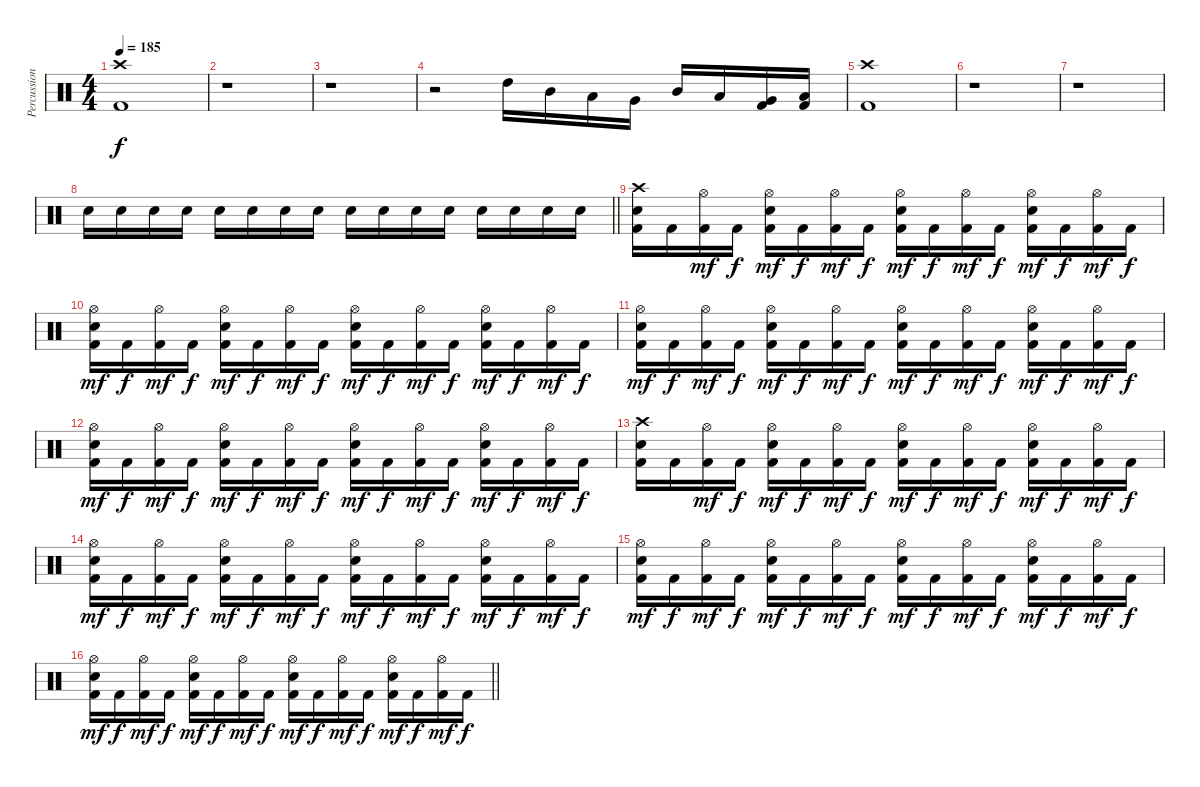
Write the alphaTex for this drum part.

\track ("Percussion" "Percussion") {instrument percussion}
\staff {score}
\articulation defaults
\ts (4 4)
\section ("" "")
\tempo 185
\clef neutral
\ks c
("Crash high (hit)" "Kick (hit) 2").1{dy f} |
r.1 |
r.1 |
r.2 "High Tom (hit)".16 "Mid Tom (hit)".16 "Low Tom (hit)".16 "Very Low Tom (hit)".16 "Mid Tom (hit)".16 "Low Tom (hit)".16 ("Very Low Tom (hit)" "Kick (hit) 2").16 ("Low Floor Tom (hit)" "Kick (hit) 2").16 |
("Crash high (hit)" "Kick (hit) 2").1 |
r.1 |
r.1 |
\barLineRight lightlight "Electric Snare (hit)".16 "Electric Snare (hit)".16 "Electric Snare (hit)".16 "Electric Snare (hit)".16 "Electric Snare (hit)".16 "Electric Snare (hit)".16 "Electric Snare (hit)".16 "Electric Snare (hit)".16 "Electric Snare (hit)".16 "Electric Snare (hit)".16 "Electric Snare (hit)".16 "Electric Snare (hit)".16 "Electric Snare (hit)".16 "Electric Snare (hit)".16 "Electric Snare (hit)".16 "Electric Snare (hit)".16
|
\section ("" "")
("Crash high (hit)" "Electric Snare (hit)" "Kick (hit) 2").16 "Kick (hit) 2".16 ("Hi-Hat (open)" "Kick (hit) 2").16{dy mf} "Kick (hit) 2".16{dy f} ("Hi-Hat (open)" "Electric Snare (hit)" "Kick (hit) 2").16{dy mf} "Kick (hit) 2".16{dy f} ("Hi-Hat (open)" "Kick (hit) 2").16{dy mf} "Kick (hit) 2".16{dy f} ("Hi-Hat (open)" "Electric Snare (hit)" "Kick (hit) 2").16{dy mf} "Kick (hit) 2".16{dy f} ("Hi-Hat (open)" "Kick (hit) 2").16{dy mf} "Kick (hit) 2".16{dy f} ("Hi-Hat (open)" "Electric Snare (hit)" "Kick (hit) 2").16{dy mf} "Kick (hit) 2".16{dy f} ("Hi-Hat (open)" "Kick (hit) 2").16{dy mf} "Kick (hit) 2".16{dy f} |
("Hi-Hat (open)" "Electric Snare (hit)" "Kick (hit) 2").16{dy mf} "Kick (hit) 2".16{dy f} ("Hi-Hat (open)" "Kick (hit) 2").16{dy mf} "Kick (hit) 2".16{dy f} ("Hi-Hat (open)" "Electric Snare (hit)" "Kick (hit) 2").16{dy mf} "Kick (hit) 2".16{dy f} ("Hi-Hat (open)" "Kick (hit) 2").16{dy mf} "Kick (hit) 2".16{dy f} ("Hi-Hat (open)" "Electric Snare (hit)" "Kick (hit) 2").16{dy mf} "Kick (hit) 2".16{dy f} ("Hi-Hat (open)" "Kick (hit) 2").16{dy mf} "Kick (hit) 2".16{dy f} ("Hi-Hat (open)" "Electric Snare (hit)" "Kick (hit) 2").16{dy mf} "Kick (hit) 2".16{dy f} ("Hi-Hat (open)" "Kick (hit) 2").16{dy mf} "Kick (hit) 2".16{dy f} |
("Hi-Hat (open)" "Electric Snare (hit)" "Kick (hit) 2").16{dy mf} "Kick (hit) 2".16{dy f} ("Hi-Hat (open)" "Kick (hit) 2").16{dy mf} "Kick (hit) 2".16{dy f} ("Hi-Hat (open)" "Electric Snare (hit)" "Kick (hit) 2").16{dy mf} "Kick (hit) 2".16{dy f} ("Hi-Hat (open)" "Kick (hit) 2").16{dy mf} "Kick (hit) 2".16{dy f} ("Hi-Hat (open)" "Electric Snare (hit)" "Kick (hit) 2").16{dy mf} "Kick (hit) 2".16{dy f} ("Hi-Hat (open)" "Kick (hit) 2").16{dy mf} "Kick (hit) 2".16{dy f} ("Hi-Hat (open)" "Electric Snare (hit)" "Kick (hit) 2").16{dy mf} "Kick (hit) 2".16{dy f} ("Hi-Hat (open)" "Kick (hit) 2").16{dy mf} "Kick (hit) 2".16{dy f} |
("Hi-Hat (open)" "Electric Snare (hit)" "Kick (hit) 2").16{dy mf} "Kick (hit) 2".16{dy f} ("Hi-Hat (open)" "Kick (hit) 2").16{dy mf} "Kick (hit) 2".16{dy f} ("Hi-Hat (open)" "Electric Snare (hit)" "Kick (hit) 2").16{dy mf} "Kick (hit) 2".16{dy f} ("Hi-Hat (open)" "Kick (hit) 2").16{dy mf} "Kick (hit) 2".16{dy f} ("Hi-Hat (open)" "Electric Snare (hit)" "Kick (hit) 2").16{dy mf} "Kick (hit) 2".16{dy f} ("Hi-Hat (open)" "Kick (hit) 2").16{dy mf} "Kick (hit) 2".16{dy f} ("Hi-Hat (open)" "Electric Snare (hit)" "Kick (hit) 2").16{dy mf} "Kick (hit) 2".16{dy f} ("Hi-Hat (open)" "Kick (hit) 2").16{dy mf} "Kick (hit) 2".16{dy f} |
("Crash high (hit)" "Electric Snare (hit)" "Kick (hit) 2").16 "Kick (hit) 2".16 ("Hi-Hat (open)" "Kick (hit) 2").16{dy mf} "Kick (hit) 2".16{dy f} ("Hi-Hat (open)" "Electric Snare (hit)" "Kick (hit) 2").16{dy mf} "Kick (hit) 2".16{dy f} ("Hi-Hat (open)" "Kick (hit) 2").16{dy mf} "Kick (hit) 2".16{dy f} ("Hi-Hat (open)" "Electric Snare (hit)" "Kick (hit) 2").16{dy mf} "Kick (hit) 2".16{dy f} ("Hi-Hat (open)" "Kick (hit) 2").16{dy mf} "Kick (hit) 2".16{dy f} ("Hi-Hat (open)" "Electric Snare (hit)" "Kick (hit) 2").16{dy mf} "Kick (hit) 2".16{dy f} ("Hi-Hat (open)" "Kick (hit) 2").16{dy mf} "Kick (hit) 2".16{dy f} |
("Hi-Hat (open)" "Electric Snare (hit)" "Kick (hit) 2").16{dy mf} "Kick (hit) 2".16{dy f} ("Hi-Hat (open)" "Kick (hit) 2").16{dy mf} "Kick (hit) 2".16{dy f} ("Hi-Hat (open)" "Electric Snare (hit)" "Kick (hit) 2").16{dy mf} "Kick (hit) 2".16{dy f} ("Hi-Hat (open)" "Kick (hit) 2").16{dy mf} "Kick (hit) 2".16{dy f} ("Hi-Hat (open)" "Electric Snare (hit)" "Kick (hit) 2").16{dy mf} "Kick (hit) 2".16{dy f} ("Hi-Hat (open)" "Kick (hit) 2").16{dy mf} "Kick (hit) 2".16{dy f} ("Hi-Hat (open)" "Electric Snare (hit)" "Kick (hit) 2").16{dy mf} "Kick (hit) 2".16{dy f} ("Hi-Hat (open)" "Kick (hit) 2").16{dy mf} "Kick (hit) 2".16{dy f} |
("Hi-Hat (open)" "Electric Snare (hit)" "Kick (hit) 2").16{dy mf} "Kick (hit) 2".16{dy f} ("Hi-Hat (open)" "Kick (hit) 2").16{dy mf} "Kick (hit) 2".16{dy f} ("Hi-Hat (open)" "Electric Snare (hit)" "Kick (hit) 2").16{dy mf} "Kick (hit) 2".16{dy f} ("Hi-Hat (open)" "Kick (hit) 2").16{dy mf} "Kick (hit) 2".16{dy f} ("Hi-Hat (open)" "Electric Snare (hit)" "Kick (hit) 2").16{dy mf} "Kick (hit) 2".16{dy f} ("Hi-Hat (open)" "Kick (hit) 2").16{dy mf} "Kick (hit) 2".16{dy f} ("Hi-Hat (open)" "Electric Snare (hit)" "Kick (hit) 2").16{dy mf} "Kick (hit) 2".16{dy f} ("Hi-Hat (open)" "Kick (hit) 2").16{dy mf} "Kick (hit) 2".16{dy f} |
\barLineRight lightlight
("Hi-Hat (open)" "Electric Snare (hit)" "Kick (hit) 2").16{dy mf} "Kick (hit) 2".16{dy f} ("Hi-Hat (open)" "Kick (hit) 2").16{dy mf} "Kick (hit) 2".16{dy f} ("Hi-Hat (open)" "Electric Snare (hit)" "Kick (hit) 2").16{dy mf} "Kick (hit) 2".16{dy f} ("Hi-Hat (open)" "Kick (hit) 2").16{dy mf} "Kick (hit) 2".16{dy f} ("Hi-Hat (open)" "Electric Snare (hit)" "Kick (hit) 2").16{dy mf} "Kick (hit) 2".16{dy f} ("Hi-Hat (open)" "Kick (hit) 2").16{dy mf} "Kick (hit) 2".16{dy f} ("Hi-Hat (open)" "Electric Snare (hit)" "Kick (hit) 2").16{dy mf} "Kick (hit) 2".16{dy f} ("Hi-Hat (open)" "Kick (hit) 2").16{dy mf} "Kick (hit) 2".16{dy f}
